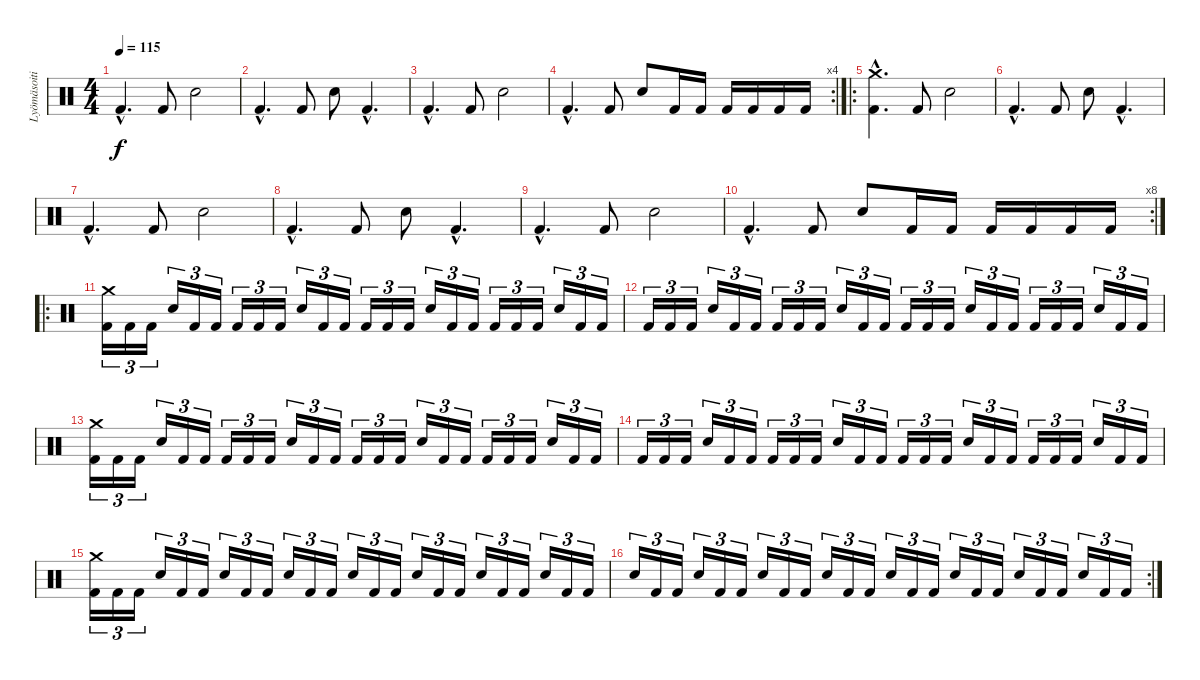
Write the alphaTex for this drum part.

\track ("Lyömäsoitin" "Lyömäsoiti") {instrument percussion}
\staff {score}
\articulation defaults
\ts (4 4)
\tempo 115
\clef neutral
\ks c "Kick (hit) 2"{hac}.4{d dy f} "Kick (hit) 2".8 "Snare (hit) 2".2
|
"Kick (hit) 2"{hac}.4{d} "Kick (hit) 2".8 "Snare (hit) 2".8 "Kick (hit) 2"{hac}.4{d} |
"Kick (hit) 2"{hac}.4{d} "Kick (hit) 2".8 "Snare (hit) 2".2 |
\rc 4 "Kick (hit) 2"{hac}.4{d} "Kick (hit) 2".8 "Snare (hit) 2".8 "Kick (hit) 2".16 "Kick (hit) 2".16 "Kick (hit) 2".16 "Kick (hit) 2".16 "Kick (hit) 2".16 "Kick (hit) 2".16
|
\ro
("Crash medium (hit)"{hac} "Kick (hit) 2"{hac}).4{d} "Kick (hit) 2".8 "Snare (hit) 2".2 |
"Kick (hit) 2"{hac}.4{d} "Kick (hit) 2".8 "Snare (hit) 2".8 "Kick (hit) 2"{hac}.4{d} |
"Kick (hit) 2"{hac}.4{d} "Kick (hit) 2".8 "Snare (hit) 2".2 |
"Kick (hit) 2"{hac}.4{d} "Kick (hit) 2".8 "Snare (hit) 2".8 "Kick (hit) 2"{hac}.4{d} |
"Kick (hit) 2"{hac}.4{d} "Kick (hit) 2".8 "Snare (hit) 2".2 |
\rc 8 "Kick (hit) 2"{hac}.4{d} "Kick (hit) 2".8 "Snare (hit) 2".8 "Kick (hit) 2".16 "Kick (hit) 2".16 "Kick (hit) 2".16 "Kick (hit) 2".16 "Kick (hit) 2".16 "Kick (hit) 2".16
|
\ro
("Crash medium (hit)" "Kick (hit) 2").16{tu (3 2)} "Kick (hit) 2".16{tu (3 2)} "Kick (hit) 2".16{tu (3 2)} "Snare (hit) 2".16{tu (3 2)} "Kick (hit) 2".16{tu (3 2)} "Kick (hit) 2".16{tu (3 2)} "Kick (hit) 2".16{tu (3 2)} "Kick (hit) 2".16{tu (3 2)} "Kick (hit) 2".16{tu (3 2)} "Snare (hit) 2".16{tu (3 2)} "Kick (hit) 2".16{tu (3 2)} "Kick (hit) 2".16{tu (3 2)} "Kick (hit) 2".16{tu (3 2)} "Kick (hit) 2".16{tu (3 2)} "Kick (hit) 2".16{tu (3 2)} "Snare (hit) 2".16{tu (3 2)} "Kick (hit) 2".16{tu (3 2)} "Kick (hit) 2".16{tu (3 2)} "Kick (hit) 2".16{tu (3 2)} "Kick (hit) 2".16{tu (3 2)} "Kick (hit) 2".16{tu (3 2)} "Snare (hit) 2".16{tu (3 2)} "Kick (hit) 2".16{tu (3 2)} "Kick (hit) 2".16{tu (3 2)} |
"Kick (hit) 2".16{tu (3 2)} "Kick (hit) 2".16{tu (3 2)} "Kick (hit) 2".16{tu (3 2)} "Snare (hit) 2".16{tu (3 2)} "Kick (hit) 2".16{tu (3 2)} "Kick (hit) 2".16{tu (3 2)} "Kick (hit) 2".16{tu (3 2)} "Kick (hit) 2".16{tu (3 2)} "Kick (hit) 2".16{tu (3 2)} "Snare (hit) 2".16{tu (3 2)} "Kick (hit) 2".16{tu (3 2)} "Kick (hit) 2".16{tu (3 2)} "Kick (hit) 2".16{tu (3 2)} "Kick (hit) 2".16{tu (3 2)} "Kick (hit) 2".16{tu (3 2)} "Snare (hit) 2".16{tu (3 2)} "Kick (hit) 2".16{tu (3 2)} "Kick (hit) 2".16{tu (3 2)} "Kick (hit) 2".16{tu (3 2)} "Kick (hit) 2".16{tu (3 2)} "Kick (hit) 2".16{tu (3 2)} "Snare (hit) 2".16{tu (3 2)} "Kick (hit) 2".16{tu (3 2)} "Kick (hit) 2".16{tu (3 2)} |
("Crash medium (hit)" "Kick (hit) 2").16{tu (3 2)} "Kick (hit) 2".16{tu (3 2)} "Kick (hit) 2".16{tu (3 2)} "Snare (hit) 2".16{tu (3 2)} "Kick (hit) 2".16{tu (3 2)} "Kick (hit) 2".16{tu (3 2)} "Kick (hit) 2".16{tu (3 2)} "Kick (hit) 2".16{tu (3 2)} "Kick (hit) 2".16{tu (3 2)} "Snare (hit) 2".16{tu (3 2)} "Kick (hit) 2".16{tu (3 2)} "Kick (hit) 2".16{tu (3 2)} "Kick (hit) 2".16{tu (3 2)} "Kick (hit) 2".16{tu (3 2)} "Kick (hit) 2".16{tu (3 2)} "Snare (hit) 2".16{tu (3 2)} "Kick (hit) 2".16{tu (3 2)} "Kick (hit) 2".16{tu (3 2)} "Kick (hit) 2".16{tu (3 2)} "Kick (hit) 2".16{tu (3 2)} "Kick (hit) 2".16{tu (3 2)} "Snare (hit) 2".16{tu (3 2)} "Kick (hit) 2".16{tu (3 2)} "Kick (hit) 2".16{tu (3 2)} |
"Kick (hit) 2".16{tu (3 2)} "Kick (hit) 2".16{tu (3 2)} "Kick (hit) 2".16{tu (3 2)} "Snare (hit) 2".16{tu (3 2)} "Kick (hit) 2".16{tu (3 2)} "Kick (hit) 2".16{tu (3 2)} "Kick (hit) 2".16{tu (3 2)} "Kick (hit) 2".16{tu (3 2)} "Kick (hit) 2".16{tu (3 2)} "Snare (hit) 2".16{tu (3 2)} "Kick (hit) 2".16{tu (3 2)} "Kick (hit) 2".16{tu (3 2)} "Kick (hit) 2".16{tu (3 2)} "Kick (hit) 2".16{tu (3 2)} "Kick (hit) 2".16{tu (3 2)} "Snare (hit) 2".16{tu (3 2)} "Kick (hit) 2".16{tu (3 2)} "Kick (hit) 2".16{tu (3 2)} "Kick (hit) 2".16{tu (3 2)} "Kick (hit) 2".16{tu (3 2)} "Kick (hit) 2".16{tu (3 2)} "Snare (hit) 2".16{tu (3 2)} "Kick (hit) 2".16{tu (3 2)} "Kick (hit) 2".16{tu (3 2)} |
("Crash medium (hit)" "Kick (hit) 2").16{tu (3 2)} "Kick (hit) 2".16{tu (3 2)} "Kick (hit) 2".16{tu (3 2)} "Snare (hit) 2".16{tu (3 2)} "Kick (hit) 2".16{tu (3 2)} "Kick (hit) 2".16{tu (3 2)} "Snare (hit) 2".16{tu (3 2)} "Kick (hit) 2".16{tu (3 2)} "Kick (hit) 2".16{tu (3 2)} "Snare (hit) 2".16{tu (3 2)} "Kick (hit) 2".16{tu (3 2)} "Kick (hit) 2".16{tu (3 2)} "Snare (hit) 2".16{tu (3 2)} "Kick (hit) 2".16{tu (3 2)} "Kick (hit) 2".16{tu (3 2)} "Snare (hit) 2".16{tu (3 2)} "Kick (hit) 2".16{tu (3 2)} "Kick (hit) 2".16{tu (3 2)} "Snare (hit) 2".16{tu (3 2)} "Kick (hit) 2".16{tu (3 2)} "Kick (hit) 2".16{tu (3 2)} "Snare (hit) 2".16{tu (3 2)} "Kick (hit) 2".16{tu (3 2)} "Kick (hit) 2".16{tu (3 2)} |
\rc 2 "Snare (hit) 2".16{tu (3 2)} "Kick (hit) 2".16{tu (3 2)} "Kick (hit) 2".16{tu (3 2)} "Snare (hit) 2".16{tu (3 2)} "Kick (hit) 2".16{tu (3 2)} "Kick (hit) 2".16{tu (3 2)} "Snare (hit) 2".16{tu (3 2)} "Kick (hit) 2".16{tu (3 2)} "Kick (hit) 2".16{tu (3 2)} "Snare (hit) 2".16{tu (3 2)} "Kick (hit) 2".16{tu (3 2)} "Kick (hit) 2".16{tu (3 2)} "Snare (hit) 2".16{tu (3 2)} "Kick (hit) 2".16{tu (3 2)} "Kick (hit) 2".16{tu (3 2)} "Snare (hit) 2".16{tu (3 2)} "Kick (hit) 2".16{tu (3 2)} "Kick (hit) 2".16{tu (3 2)} "Snare (hit) 2".16{tu (3 2)} "Kick (hit) 2".16{tu (3 2)} "Kick (hit) 2".16{tu (3 2)} "Snare (hit) 2".16{tu (3 2)} "Kick (hit) 2".16{tu (3 2)} "Kick (hit) 2".16{tu (3 2)}
